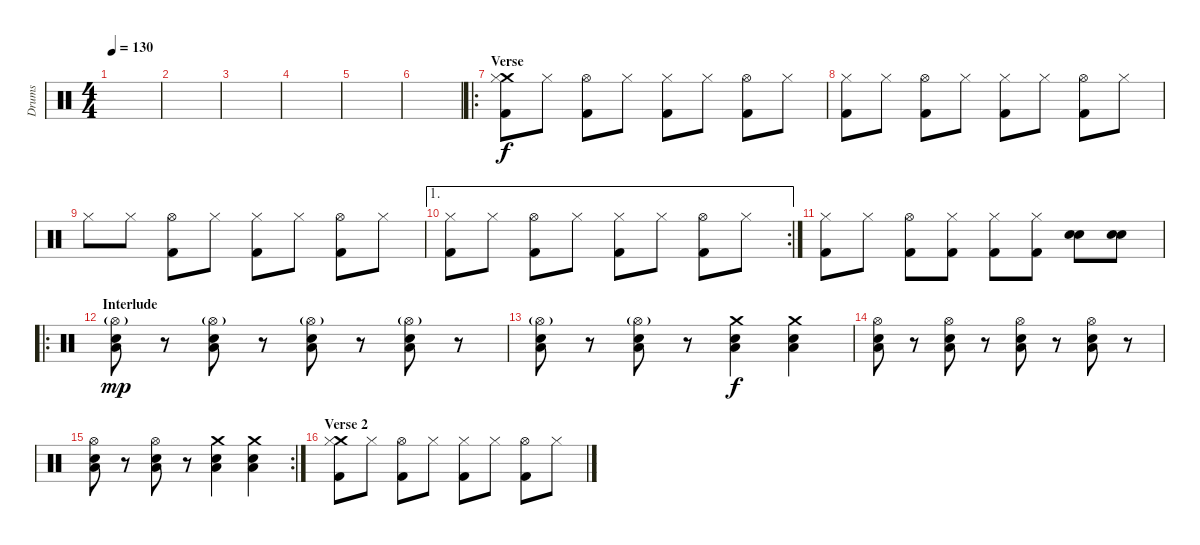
\track ("Drums" "Drums") {instrument percussion}
\staff {score}
\articulation defaults
\ts (4 4)
\tempo 130
\clef neutral
\ks c
|
|
|
|
|
|
\ro
\section ("" "Verse")
("Kick (hit) 2" "Crash medium (hit)" "Hi-Hat (closed)").8 "Hi-Hat (closed)".8 ("Kick (hit) 2" "Hi-Hat (open)").8 "Hi-Hat (closed)".8 ("Kick (hit) 2" "Hi-Hat (closed)").8 "Hi-Hat (closed)".8 ("Kick (hit) 2" "Hi-Hat (open)").8 "Hi-Hat (closed)".8 |
("Kick (hit) 2" "Hi-Hat (closed)").8 "Hi-Hat (closed)".8 ("Kick (hit) 2" "Hi-Hat (open)").8 "Hi-Hat (closed)".8 ("Kick (hit) 2" "Hi-Hat (closed)").8 "Hi-Hat (closed)".8 ("Kick (hit) 2" "Hi-Hat (open)").8 "Hi-Hat (closed)".8 |
"Hi-Hat (closed)".8 "Hi-Hat (closed)".8 ("Kick (hit) 2" "Hi-Hat (open)").8 "Hi-Hat (closed)".8 ("Kick (hit) 2" "Hi-Hat (closed)").8 "Hi-Hat (closed)".8 ("Kick (hit) 2" "Hi-Hat (open)").8 "Hi-Hat (closed)".8 |
\ae 1
\rc 2
("Kick (hit) 2" "Hi-Hat (closed)").8 "Hi-Hat (closed)".8 ("Kick (hit) 2" "Hi-Hat (open)").8 "Hi-Hat (closed)".8 ("Kick (hit) 2" "Hi-Hat (closed)").8 "Hi-Hat (closed)".8 ("Kick (hit) 2" "Hi-Hat (open)").8 "Hi-Hat (closed)".8 |
("Kick (hit) 2" "Hi-Hat (closed)").8 "Hi-Hat (closed)".8 ("Kick (hit) 2" "Hi-Hat (open)").8 ("Kick (hit) 2" "Hi-Hat (closed)").8 ("Kick (hit) 2" "Hi-Hat (closed)").8 ("Kick (hit) 2" "Hi-Hat (closed)").8 ("Snare (hit) 2" "Snare (hit) 2").8 ("Snare (hit) 2" "Snare (hit) 2").8 |
\ro
\section ("" "Interlude")
("Hi-Hat (open)"{g} "Low Tom (hit)" "Snare (hit) 2").8{dy mp} r.8 ("Hi-Hat (open)"{g} "Low Tom (hit)" "Snare (hit) 2").8 r.8 ("Hi-Hat (open)"{g} "Low Tom (hit)" "Snare (hit) 2").8 r.8 ("Hi-Hat (open)"{g} "Low Tom (hit)" "Snare (hit) 2").8 r.8 |
("Hi-Hat (open)"{g} "Low Tom (hit)" "Snare (hit) 2").8 r.8 ("Hi-Hat (open)"{g} "Low Tom (hit)" "Snare (hit) 2").8 r.8 ("Crash medium (hit)" "Low Tom (hit)" "Snare (hit) 2").4{dy f} ("Crash medium (hit)" "Snare (hit) 2" "Low Tom (hit)").4 |
("Hi-Hat (open)" "Low Tom (hit)" "Snare (hit) 2").8 r.8 ("Hi-Hat (open)" "Low Tom (hit)" "Snare (hit) 2").8 r.8 ("Hi-Hat (open)" "Low Tom (hit)" "Snare (hit) 2").8 r.8 ("Hi-Hat (open)" "Low Tom (hit)" "Snare (hit) 2").8 r.8 |
\rc 2
("Hi-Hat (open)" "Low Tom (hit)" "Snare (hit) 2").8 r.8 ("Hi-Hat (open)" "Low Tom (hit)" "Snare (hit) 2").8 r.8 ("Crash medium (hit)" "Low Tom (hit)" "Snare (hit) 2").4 ("Crash medium (hit)" "Snare (hit) 2" "Low Tom (hit)").4 |
\section ("" "Verse 2")
("Kick (hit) 2" "Crash medium (hit)" "Hi-Hat (closed)").8 "Hi-Hat (closed)".8 ("Kick (hit) 2" "Hi-Hat (open)").8 "Hi-Hat (closed)".8 ("Kick (hit) 2" "Hi-Hat (closed)").8 "Hi-Hat (closed)".8 ("Kick (hit) 2" "Hi-Hat (open)").8 "Hi-Hat (closed)".8
